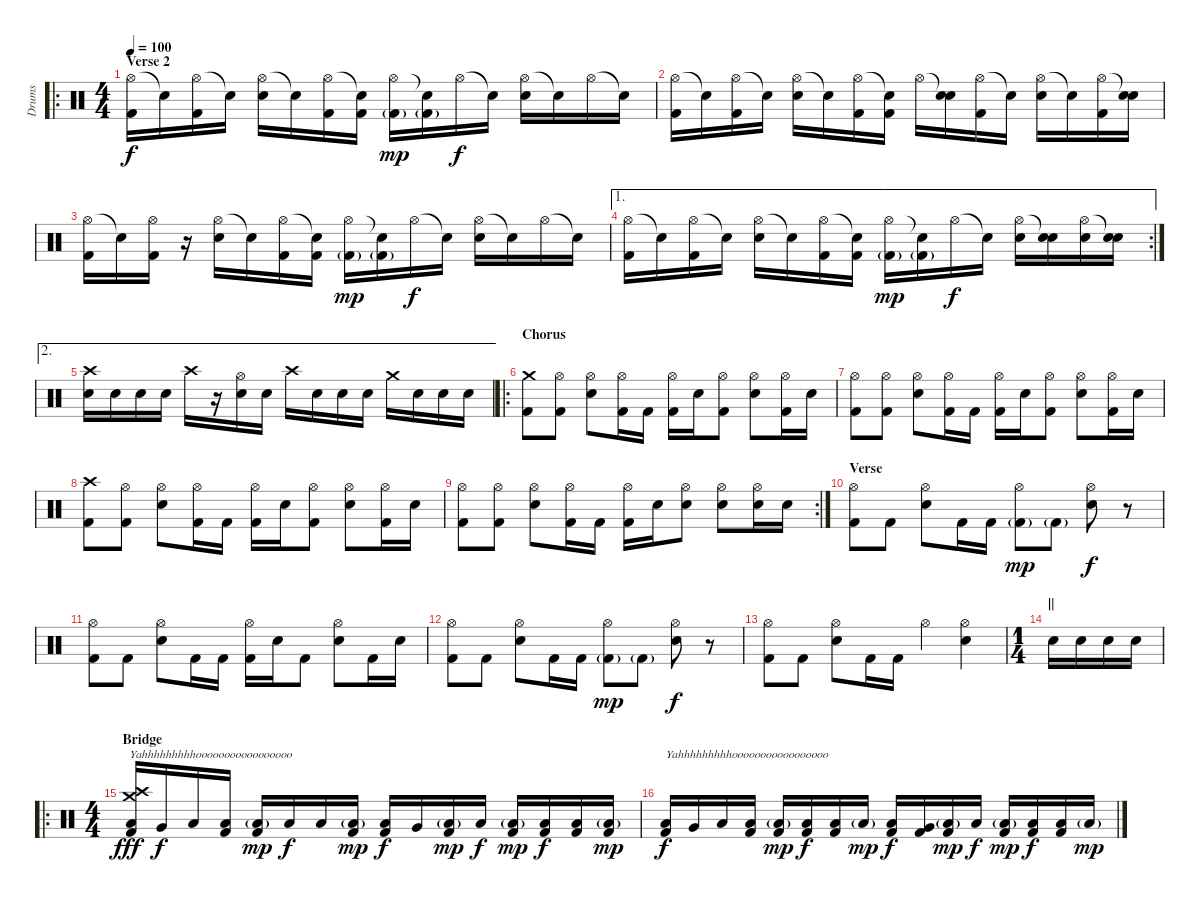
\track ("Drums" "Drums") {instrument percussion}
\staff {score}
\articulation defaults
\ro
\ts (4 4)
\section ("" "Verse 2")
\tempo 100
\clef neutral
\ks c
("Hi-Hat (open)" "Kick (hit) 2").16{dy f} "Snare (hit)"{t}.16 ("Hi-Hat (open)" "Kick (hit) 2").16 "Snare (hit)"{t}.16 ("Hi-Hat (open)" "Snare (hit) 2").16 "Snare (hit)"{t}.16 ("Hi-Hat (open)" "Kick (hit) 2").16 ("Snare (hit)"{t} "Kick (hit) 2").16 ("Hi-Hat (open)" "Kick (hit) 2"{g}).16{dy mp} ("Snare (hit)"{t} "Kick (hit) 2"{g}).16 "Hi-Hat (open)".16{dy f} "Snare (hit)"{t}.16 ("Hi-Hat (open)" "Snare (hit) 2").16 "Snare (hit)"{t}.16 "Hi-Hat (open)".16 "Snare (hit)"{t}.16 |
("Hi-Hat (open)" "Kick (hit) 2").16 "Snare (hit)"{t}.16 ("Hi-Hat (open)" "Kick (hit) 2").16 "Snare (hit)"{t}.16 ("Hi-Hat (open)" "Snare (hit) 2").16 "Snare (hit)"{t}.16 ("Hi-Hat (open)" "Kick (hit) 2").16 ("Snare (hit)"{t} "Kick (hit) 2").16 "Hi-Hat (open)".16 ("Snare (hit)"{t} "Snare (hit) 2").16 ("Hi-Hat (open)" "Kick (hit) 2").16 "Snare (hit)"{t}.16 ("Hi-Hat (open)" "Snare (hit) 2").16 "Snare (hit)"{t}.16 ("Hi-Hat (open)" "Kick (hit) 2").16 ("Snare (hit)"{t} "Snare (hit) 2").16 |
("Hi-Hat (open)" "Kick (hit) 2").16 "Snare (hit)"{t}.16 ("Hi-Hat (open)" "Kick (hit) 2").16 r.16 ("Hi-Hat (open)" "Snare (hit) 2").16 "Snare (hit)"{t}.16 ("Hi-Hat (open)" "Kick (hit) 2").16 ("Snare (hit)"{t} "Kick (hit) 2").16 ("Hi-Hat (open)" "Kick (hit) 2"{g}).16{dy mp} ("Snare (hit)"{t} "Kick (hit) 2"{g}).16 "Hi-Hat (open)".16{dy f} "Snare (hit)"{t}.16 ("Hi-Hat (open)" "Snare (hit) 2").16 "Snare (hit)"{t}.16 "Hi-Hat (open)".16 "Snare (hit)"{t}.16 |
\ae 1
\rc 2
("Hi-Hat (open)" "Kick (hit) 2").16 "Snare (hit)"{t}.16 ("Hi-Hat (open)" "Kick (hit) 2").16 "Snare (hit)"{t}.16 ("Hi-Hat (open)" "Snare (hit) 2").16 "Snare (hit)"{t}.16 ("Hi-Hat (open)" "Kick (hit) 2").16 ("Snare (hit)"{t} "Kick (hit) 2").16 ("Hi-Hat (open)" "Kick (hit) 2"{g}).16{dy mp} ("Snare (hit)"{t} "Kick (hit) 2"{g}).16 "Hi-Hat (open)".16{dy f} "Snare (hit)"{t}.16 ("Hi-Hat (open)" "Snare (hit) 2").16 ("Snare (hit)"{t} "Snare (hit) 2").16 ("Hi-Hat (open)" "Snare (hit) 2").16 ("Snare (hit)"{t} "Snare (hit) 2").16 |
\ae 2
("Crash high (hit)" "Snare (hit) 2").16 "Snare (hit) 2".16 "Snare (hit) 2".16 "Snare (hit) 2".16 "Crash high (hit)".16 r.16 ("Hi-Hat (open)" "Snare (hit) 2").16 "Snare (hit) 2".16 "Crash high (hit)".16 "Snare (hit) 2".16 "Snare (hit) 2".16 "Snare (hit) 2".16 "Crash medium (hit)".16 "Snare (hit) 2".16 "Snare (hit) 2".16 "Snare (hit) 2".16 |
\ro
\section ("" "Chorus")
("Crash medium (hit)" "Kick (hit) 2").8 ("Hi-Hat (open)" "Kick (hit) 2").8 ("Hi-Hat (open)" "Snare (hit) 2").8 ("Hi-Hat (open)" "Kick (hit) 2").16 "Kick (hit) 2".16 ("Hi-Hat (open)" "Kick (hit) 2").16 "Snare (hit) 2".16 ("Hi-Hat (open)" "Kick (hit) 2").8 ("Hi-Hat (open)" "Snare (hit) 2").8 ("Hi-Hat (open)" "Kick (hit) 2").16 "Snare (hit) 2".16 |
("Hi-Hat (open)" "Kick (hit) 2").8 ("Hi-Hat (open)" "Kick (hit) 2").8 ("Hi-Hat (open)" "Snare (hit) 2").8 ("Hi-Hat (open)" "Kick (hit) 2").16 "Kick (hit) 2".16 ("Hi-Hat (open)" "Kick (hit) 2").16 "Snare (hit) 2".16 ("Hi-Hat (open)" "Kick (hit) 2").8 ("Hi-Hat (open)" "Snare (hit) 2").8 ("Hi-Hat (open)" "Kick (hit) 2").16 "Snare (hit) 2".16 |
("Crash high (hit)" "Kick (hit) 2").8 ("Hi-Hat (open)" "Kick (hit) 2").8 ("Hi-Hat (open)" "Snare (hit) 2").8 ("Hi-Hat (open)" "Kick (hit) 2").16 "Kick (hit) 2".16 ("Hi-Hat (open)" "Kick (hit) 2").16 "Snare (hit) 2".16 ("Hi-Hat (open)" "Kick (hit) 2").8 ("Hi-Hat (open)" "Snare (hit) 2").8 ("Hi-Hat (open)" "Kick (hit) 2").16 "Snare (hit) 2".16 |
\rc 2
("Hi-Hat (open)" "Kick (hit) 2").8 ("Hi-Hat (open)" "Kick (hit) 2").8 ("Hi-Hat (open)" "Snare (hit) 2").8 ("Hi-Hat (open)" "Kick (hit) 2").16 "Kick (hit) 2".16 ("Hi-Hat (open)" "Kick (hit) 2").16 "Snare (hit) 2".16 ("Hi-Hat (open)" "Snare (hit) 2").8 ("Hi-Hat (open)" "Snare (hit) 2").8 ("Hi-Hat (open)" "Snare (hit) 2").16 "Snare (hit) 2".16 |
\section ("" "Verse")
("Hi-Hat (open)" "Kick (hit) 2").8 "Kick (hit) 2".8 ("Hi-Hat (open)" "Snare (hit) 2").8 "Kick (hit) 2".16 "Kick (hit) 2".16 ("Hi-Hat (open)" "Kick (hit) 2"{g}).8{dy mp} "Kick (hit) 2"{g}.8 ("Hi-Hat (open)" "Snare (hit) 2").8{dy f} r.8 |
("Hi-Hat (open)" "Kick (hit) 2").8 "Kick (hit) 2".8 ("Hi-Hat (open)" "Snare (hit) 2").8 "Kick (hit) 2".16 "Kick (hit) 2".16 ("Hi-Hat (open)" "Kick (hit) 2").16 "Snare (hit) 2".16 "Kick (hit) 2".8 ("Hi-Hat (open)" "Snare (hit) 2").8 "Kick (hit) 2".16 "Snare (hit) 2".16 |
("Hi-Hat (open)" "Kick (hit) 2").8 "Kick (hit) 2".8 ("Hi-Hat (open)" "Snare (hit) 2").8 "Kick (hit) 2".16 "Kick (hit) 2".16 ("Hi-Hat (open)" "Kick (hit) 2"{g}).8{dy mp} "Kick (hit) 2"{g}.8 ("Hi-Hat (open)" "Snare (hit) 2").8{dy f} r.8 |
("Hi-Hat (open)" "Kick (hit) 2").8 "Kick (hit) 2".8 ("Hi-Hat (open)" "Snare (hit) 2").8 "Kick (hit) 2".16 "Kick (hit) 2".16 "Hi-Hat (open)".4 ("Hi-Hat (open)" "Snare (hit) 2").4 |
\ts (1 4)
\section ("" "||")
"Snare (hit) 2".16 "Snare (hit) 2".16 "Snare (hit) 2".16 "Snare (hit) 2".16 |
\ro
\ts (4 4)
\section ("" "Bridge")
("Kick (hit) 2" "Low Tom (hit)" "Crash high (hit)" "Crash medium (hit)").16{txt "Yahhhhhhhhhooooooooooooooooo" dy fff volume 10} "Very Low Tom (hit)".16{dy f} "Low Floor Tom (hit)".16 ("Kick (hit) 2" "Low Floor Tom (hit)").16 ("Kick (hit) 2" "Low Floor Tom (hit)"{g}).16{dy mp} "Low Floor Tom (hit)".16{dy f} "Low Floor Tom (hit)".16 ("Kick (hit) 2" "Low Floor Tom (hit)"{g}).16{dy mp} ("Kick (hit) 2" "Low Tom (hit)").16{dy f} "Very Low Tom (hit)".16 ("Kick (hit) 2" "Low Floor Tom (hit)"{g}).16{dy mp} "Low Floor Tom (hit)".16{dy f} ("Kick (hit) 2" "Low Floor Tom (hit)"{g}).16{dy mp} ("Kick (hit) 2" "Low Floor Tom (hit)").16{dy f} ("Kick (hit) 2" "Low Floor Tom (hit)").16 ("Kick (hit) 2" "Low Floor Tom (hit)"{g}).16{dy mp} |
("Kick (hit) 2" "Low Tom (hit)").16{txt "Yahhhhhhhhhooooooooooooooooo" dy f volume 12} "Very Low Tom (hit)".16 "Low Floor Tom (hit)".16 ("Kick (hit) 2" "Low Floor Tom (hit)").16 ("Kick (hit) 2" "Low Floor Tom (hit)"{g}).16{dy mp} ("Kick (hit) 2" "Low Floor Tom (hit)").16{dy f} ("Kick (hit) 2" "Low Floor Tom (hit)").16 "Low Floor Tom (hit)"{g}.16{dy mp} ("Kick (hit) 2" "Low Tom (hit)").16{dy f} ("Kick (hit) 2" "Very Low Tom (hit)").16 ("Kick (hit) 2" "Low Floor Tom (hit)"{g}).16{dy mp} "Low Floor Tom (hit)".16{dy f} ("Kick (hit) 2" "Low Floor Tom (hit)"{g}).16{dy mp} ("Kick (hit) 2" "Low Floor Tom (hit)").16{dy f} ("Kick (hit) 2" "Low Floor Tom (hit)").16 "Low Floor Tom (hit)"{g}.16{dy mp}
